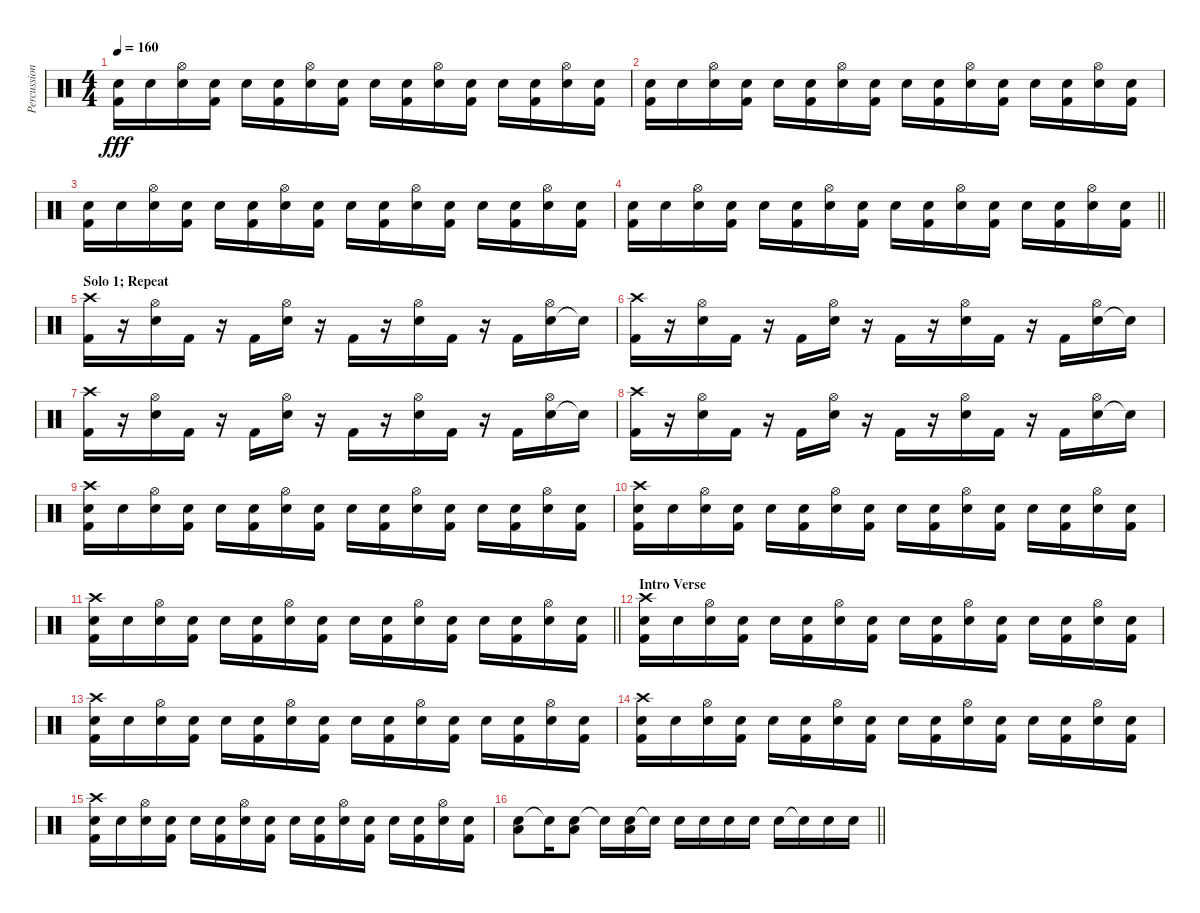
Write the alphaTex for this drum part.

\track ("Percussion" "Percussion") {instrument percussion}
\staff {score}
\articulation defaults
\ts (4 4)
\tempo 160
\clef neutral
\ks c
("Snare (hit) 2" "Kick (hit) 2").16{dy fff} "Snare (hit) 2".16 ("Snare (hit) 2" "Hi-Hat (open)").16 ("Snare (hit) 2" "Kick (hit) 2").16 "Snare (hit) 2".16 ("Snare (hit) 2" "Kick (hit) 2").16 ("Snare (hit) 2" "Hi-Hat (open)").16 ("Snare (hit) 2" "Kick (hit) 2").16 "Snare (hit) 2".16 ("Snare (hit) 2" "Kick (hit) 2").16 ("Snare (hit) 2" "Hi-Hat (open)").16 ("Snare (hit) 2" "Kick (hit) 2").16 "Snare (hit) 2".16 ("Snare (hit) 2" "Kick (hit) 2").16 ("Snare (hit) 2" "Hi-Hat (open)").16 ("Snare (hit) 2" "Kick (hit) 2").16 |
("Snare (hit) 2" "Kick (hit) 2").16 "Snare (hit) 2".16 ("Snare (hit) 2" "Hi-Hat (open)").16 ("Snare (hit) 2" "Kick (hit) 2").16 "Snare (hit) 2".16 ("Snare (hit) 2" "Kick (hit) 2").16 ("Snare (hit) 2" "Hi-Hat (open)").16 ("Snare (hit) 2" "Kick (hit) 2").16 "Snare (hit) 2".16 ("Snare (hit) 2" "Kick (hit) 2").16 ("Snare (hit) 2" "Hi-Hat (open)").16 ("Snare (hit) 2" "Kick (hit) 2").16 "Snare (hit) 2".16 ("Snare (hit) 2" "Kick (hit) 2").16 ("Snare (hit) 2" "Hi-Hat (open)").16 ("Snare (hit) 2" "Kick (hit) 2").16 |
("Snare (hit) 2" "Kick (hit) 2").16 "Snare (hit) 2".16 ("Snare (hit) 2" "Hi-Hat (open)").16 ("Snare (hit) 2" "Kick (hit) 2").16 "Snare (hit) 2".16 ("Snare (hit) 2" "Kick (hit) 2").16 ("Snare (hit) 2" "Hi-Hat (open)").16 ("Snare (hit) 2" "Kick (hit) 2").16 "Snare (hit) 2".16 ("Snare (hit) 2" "Kick (hit) 2").16 ("Snare (hit) 2" "Hi-Hat (open)").16 ("Snare (hit) 2" "Kick (hit) 2").16 "Snare (hit) 2".16 ("Snare (hit) 2" "Kick (hit) 2").16 ("Snare (hit) 2" "Hi-Hat (open)").16 ("Snare (hit) 2" "Kick (hit) 2").16 |
\barLineRight lightlight
("Snare (hit) 2" "Kick (hit) 2").16 "Snare (hit) 2".16 ("Snare (hit) 2" "Hi-Hat (open)").16 ("Snare (hit) 2" "Kick (hit) 2").16 "Snare (hit) 2".16 ("Snare (hit) 2" "Kick (hit) 2").16 ("Snare (hit) 2" "Hi-Hat (open)").16 ("Snare (hit) 2" "Kick (hit) 2").16 "Snare (hit) 2".16 ("Snare (hit) 2" "Kick (hit) 2").16 ("Snare (hit) 2" "Hi-Hat (open)").16 ("Snare (hit) 2" "Kick (hit) 2").16 "Snare (hit) 2".16 ("Snare (hit) 2" "Kick (hit) 2").16 ("Snare (hit) 2" "Hi-Hat (open)").16 ("Snare (hit) 2" "Kick (hit) 2").16 |
\section ("" "Solo 1; Repeat")
("Kick (hit) 2" "Crash high (hit)").16 r.16 ("Snare (hit) 2" "Hi-Hat (open)").16 "Kick (hit) 2".16 r.16 "Kick (hit) 2".16 ("Snare (hit) 2" "Hi-Hat (open)").16 r.16 "Kick (hit) 2".16 r.16 ("Snare (hit) 2" "Hi-Hat (open)").16 "Kick (hit) 2".16 r.16 "Kick (hit) 2".16 ("Snare (hit) 2" "Hi-Hat (open)").16 "Snare (hit)"{t}.16 |
("Kick (hit) 2" "Crash high (hit)").16 r.16 ("Snare (hit) 2" "Hi-Hat (open)").16 "Kick (hit) 2".16 r.16 "Kick (hit) 2".16 ("Snare (hit) 2" "Hi-Hat (open)").16 r.16 "Kick (hit) 2".16 r.16 ("Snare (hit) 2" "Hi-Hat (open)").16 "Kick (hit) 2".16 r.16 "Kick (hit) 2".16 ("Snare (hit) 2" "Hi-Hat (open)").16 "Snare (hit)"{t}.16 |
("Kick (hit) 2" "Crash high (hit)").16 r.16 ("Snare (hit) 2" "Hi-Hat (open)").16 "Kick (hit) 2".16 r.16 "Kick (hit) 2".16 ("Snare (hit) 2" "Hi-Hat (open)").16 r.16 "Kick (hit) 2".16 r.16 ("Snare (hit) 2" "Hi-Hat (open)").16 "Kick (hit) 2".16 r.16 "Kick (hit) 2".16 ("Snare (hit) 2" "Hi-Hat (open)").16 "Snare (hit)"{t}.16 |
("Kick (hit) 2" "Crash high (hit)").16 r.16 ("Snare (hit) 2" "Hi-Hat (open)").16 "Kick (hit) 2".16 r.16 "Kick (hit) 2".16 ("Snare (hit) 2" "Hi-Hat (open)").16 r.16 "Kick (hit) 2".16 r.16 ("Snare (hit) 2" "Hi-Hat (open)").16 "Kick (hit) 2".16 r.16 "Kick (hit) 2".16 ("Snare (hit) 2" "Hi-Hat (open)").16 "Snare (hit)"{t}.16 |
("Snare (hit) 2" "Crash high (hit)" "Kick (hit) 2").16 "Snare (hit) 2".16 ("Snare (hit) 2" "Hi-Hat (open)").16 ("Snare (hit) 2" "Kick (hit) 2").16 "Snare (hit) 2".16 ("Snare (hit) 2" "Kick (hit) 2").16 ("Snare (hit) 2" "Hi-Hat (open)").16 ("Snare (hit) 2" "Kick (hit) 2").16 "Snare (hit) 2".16 ("Snare (hit) 2" "Kick (hit) 2").16 ("Snare (hit) 2" "Hi-Hat (open)").16 ("Snare (hit) 2" "Kick (hit) 2").16 "Snare (hit) 2".16 ("Snare (hit) 2" "Kick (hit) 2").16 ("Snare (hit) 2" "Hi-Hat (open)").16 ("Snare (hit) 2" "Kick (hit) 2").16 |
("Snare (hit) 2" "Crash high (hit)" "Kick (hit) 2").16 "Snare (hit) 2".16 ("Snare (hit) 2" "Hi-Hat (open)").16 ("Snare (hit) 2" "Kick (hit) 2").16 "Snare (hit) 2".16 ("Snare (hit) 2" "Kick (hit) 2").16 ("Snare (hit) 2" "Hi-Hat (open)").16 ("Snare (hit) 2" "Kick (hit) 2").16 "Snare (hit) 2".16 ("Snare (hit) 2" "Kick (hit) 2").16 ("Snare (hit) 2" "Hi-Hat (open)").16 ("Snare (hit) 2" "Kick (hit) 2").16 "Snare (hit) 2".16 ("Snare (hit) 2" "Kick (hit) 2").16 ("Snare (hit) 2" "Hi-Hat (open)").16 ("Snare (hit) 2" "Kick (hit) 2").16 |
\barLineRight lightlight
("Snare (hit) 2" "Crash high (hit)" "Kick (hit) 2").16 "Snare (hit) 2".16 ("Snare (hit) 2" "Hi-Hat (open)").16 ("Snare (hit) 2" "Kick (hit) 2").16 "Snare (hit) 2".16 ("Snare (hit) 2" "Kick (hit) 2").16 ("Snare (hit) 2" "Hi-Hat (open)").16 ("Snare (hit) 2" "Kick (hit) 2").16 "Snare (hit) 2".16 ("Snare (hit) 2" "Kick (hit) 2").16 ("Snare (hit) 2" "Hi-Hat (open)").16 ("Snare (hit) 2" "Kick (hit) 2").16 "Snare (hit) 2".16 ("Snare (hit) 2" "Kick (hit) 2").16 ("Snare (hit) 2" "Hi-Hat (open)").16 ("Snare (hit) 2" "Kick (hit) 2").16 |
\section ("" "Intro Verse")
("Snare (hit) 2" "Crash high (hit)" "Kick (hit) 2").16 "Snare (hit) 2".16 ("Snare (hit) 2" "Hi-Hat (open)").16 ("Snare (hit) 2" "Kick (hit) 2").16 "Snare (hit) 2".16 ("Snare (hit) 2" "Kick (hit) 2").16 ("Snare (hit) 2" "Hi-Hat (open)").16 ("Snare (hit) 2" "Kick (hit) 2").16 "Snare (hit) 2".16 ("Snare (hit) 2" "Kick (hit) 2").16 ("Snare (hit) 2" "Hi-Hat (open)").16 ("Snare (hit) 2" "Kick (hit) 2").16 "Snare (hit) 2".16 ("Snare (hit) 2" "Kick (hit) 2").16 ("Snare (hit) 2" "Hi-Hat (open)").16 ("Snare (hit) 2" "Kick (hit) 2").16 |
("Snare (hit) 2" "Crash high (hit)" "Kick (hit) 2").16 "Snare (hit) 2".16 ("Snare (hit) 2" "Hi-Hat (open)").16 ("Snare (hit) 2" "Kick (hit) 2").16 "Snare (hit) 2".16 ("Snare (hit) 2" "Kick (hit) 2").16 ("Snare (hit) 2" "Hi-Hat (open)").16 ("Snare (hit) 2" "Kick (hit) 2").16 "Snare (hit) 2".16 ("Snare (hit) 2" "Kick (hit) 2").16 ("Snare (hit) 2" "Hi-Hat (open)").16 ("Snare (hit) 2" "Kick (hit) 2").16 "Snare (hit) 2".16 ("Snare (hit) 2" "Kick (hit) 2").16 ("Snare (hit) 2" "Hi-Hat (open)").16 ("Snare (hit) 2" "Kick (hit) 2").16 |
("Snare (hit) 2" "Crash high (hit)" "Kick (hit) 2").16 "Snare (hit) 2".16 ("Snare (hit) 2" "Hi-Hat (open)").16 ("Snare (hit) 2" "Kick (hit) 2").16 "Snare (hit) 2".16 ("Snare (hit) 2" "Kick (hit) 2").16 ("Snare (hit) 2" "Hi-Hat (open)").16 ("Snare (hit) 2" "Kick (hit) 2").16 "Snare (hit) 2".16 ("Snare (hit) 2" "Kick (hit) 2").16 ("Snare (hit) 2" "Hi-Hat (open)").16 ("Snare (hit) 2" "Kick (hit) 2").16 "Snare (hit) 2".16 ("Snare (hit) 2" "Kick (hit) 2").16 ("Snare (hit) 2" "Hi-Hat (open)").16 ("Snare (hit) 2" "Kick (hit) 2").16 |
("Snare (hit) 2" "Crash high (hit)" "Kick (hit) 2").16 "Snare (hit) 2".16 ("Snare (hit) 2" "Hi-Hat (open)").16 ("Snare (hit) 2" "Kick (hit) 2").16 "Snare (hit) 2".16 ("Snare (hit) 2" "Kick (hit) 2").16 ("Snare (hit) 2" "Hi-Hat (open)").16 ("Snare (hit) 2" "Kick (hit) 2").16 "Snare (hit) 2".16 ("Snare (hit) 2" "Kick (hit) 2").16 ("Snare (hit) 2" "Hi-Hat (open)").16 ("Snare (hit) 2" "Kick (hit) 2").16 "Snare (hit) 2".16 ("Snare (hit) 2" "Kick (hit) 2").16 ("Snare (hit) 2" "Hi-Hat (open)").16 ("Snare (hit) 2" "Kick (hit) 2").16 |
\barLineRight lightlight
("Snare (hit) 2" "Low Tom (hit)").8 "Snare (hit)"{t}.16 ("Snare (hit) 2" "Low Tom (hit)").8 "Snare (hit)"{t}.16 ("Snare (hit) 2" "Low Tom (hit)").16 "Snare (hit)"{t}.16 "Snare (hit) 2".16 "Snare (hit) 2".16 "Snare (hit) 2".16 "Snare (hit) 2".16 "Snare (hit) 2".16 "Snare (hit)"{t}.16 "Snare (hit) 2".16 "Snare (hit) 2".16
